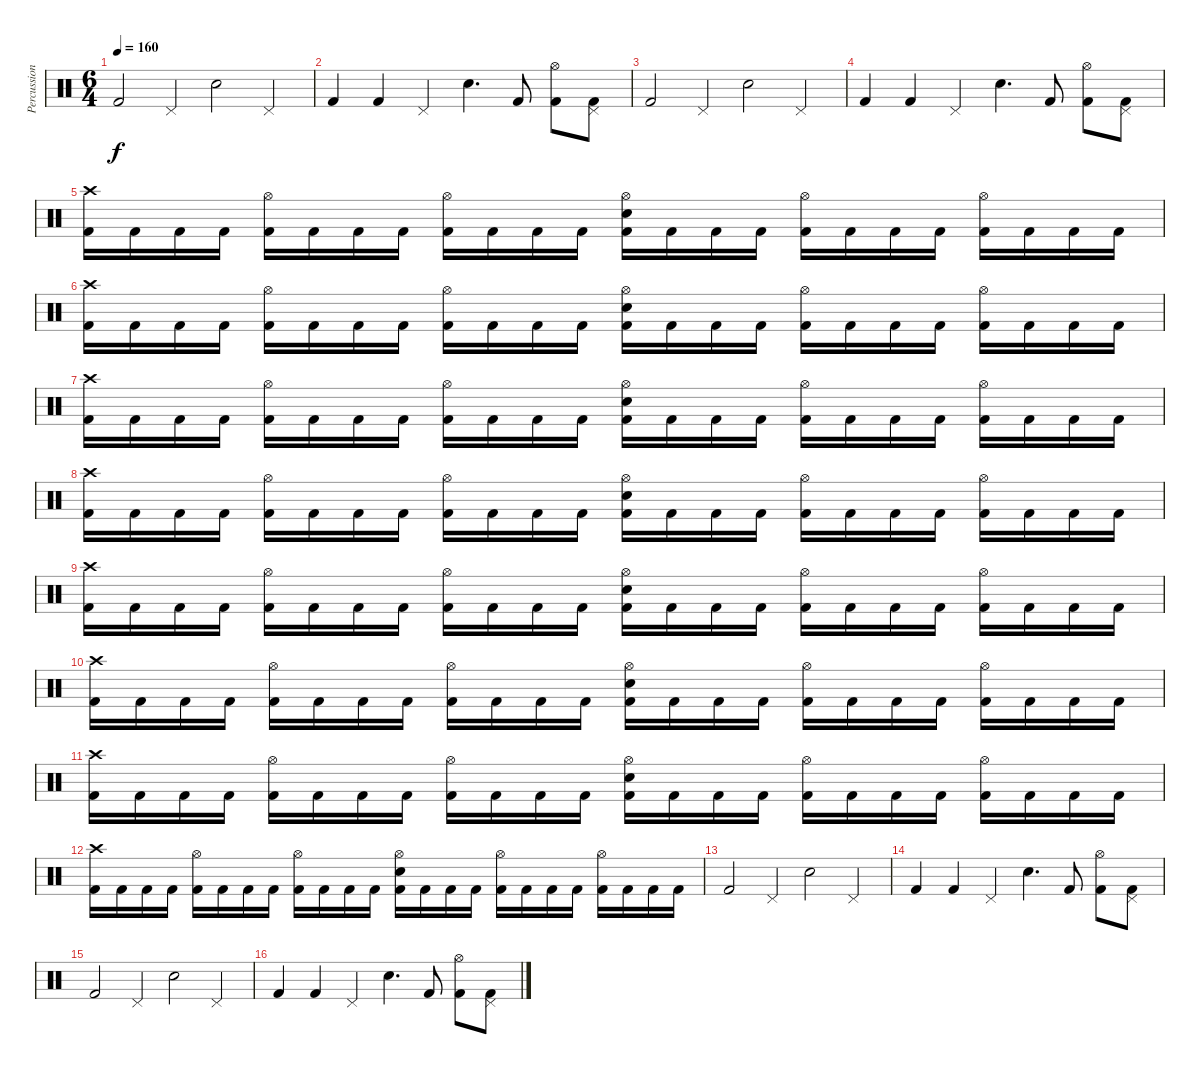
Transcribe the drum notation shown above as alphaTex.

\track ("Percussion" "Percussion") {instrument percussion}
\staff {score}
\articulation defaults
\ts (6 4)
\tempo 160
\clef neutral
\ks c "Kick (hit) 2".2{dy f} "Pedal Hi-Hat (hit)".4 "Electric Snare (hit)".2 "Pedal Hi-Hat (hit)".4
|
"Kick (hit) 2".4 "Kick (hit) 2".4 "Pedal Hi-Hat (hit)".4 "Electric Snare (hit)".4{d} "Kick (hit) 2".8 ("Hi-Hat (open)" "Kick (hit) 2").8 ("Pedal Hi-Hat (hit)" "Kick (hit) 2").8 |
"Kick (hit) 2".2 "Pedal Hi-Hat (hit)".4 "Electric Snare (hit)".2 "Pedal Hi-Hat (hit)".4 |
"Kick (hit) 2".4 "Kick (hit) 2".4 "Pedal Hi-Hat (hit)".4 "Electric Snare (hit)".4{d} "Kick (hit) 2".8 ("Hi-Hat (open)" "Kick (hit) 2").8 ("Pedal Hi-Hat (hit)" "Kick (hit) 2").8 |
("Crash high (hit)" "Kick (hit) 2").16 "Kick (hit) 2".16 "Kick (hit) 2".16 "Kick (hit) 2".16 ("Hi-Hat (open)" "Kick (hit) 2").16 "Kick (hit) 2".16 "Kick (hit) 2".16 "Kick (hit) 2".16 ("Hi-Hat (open)" "Kick (hit) 2").16 "Kick (hit) 2".16 "Kick (hit) 2".16 "Kick (hit) 2".16 ("Hi-Hat (open)" "Electric Snare (hit)" "Kick (hit) 2").16 "Kick (hit) 2".16 "Kick (hit) 2".16 "Kick (hit) 2".16 ("Hi-Hat (open)" "Kick (hit) 2").16 "Kick (hit) 2".16 "Kick (hit) 2".16 "Kick (hit) 2".16 ("Hi-Hat (open)" "Kick (hit) 2").16 "Kick (hit) 2".16 "Kick (hit) 2".16 "Kick (hit) 2".16 |
("Crash high (hit)" "Kick (hit) 2").16 "Kick (hit) 2".16 "Kick (hit) 2".16 "Kick (hit) 2".16 ("Hi-Hat (open)" "Kick (hit) 2").16 "Kick (hit) 2".16 "Kick (hit) 2".16 "Kick (hit) 2".16 ("Hi-Hat (open)" "Kick (hit) 2").16 "Kick (hit) 2".16 "Kick (hit) 2".16 "Kick (hit) 2".16 ("Hi-Hat (open)" "Electric Snare (hit)" "Kick (hit) 2").16 "Kick (hit) 2".16 "Kick (hit) 2".16 "Kick (hit) 2".16 ("Hi-Hat (open)" "Kick (hit) 2").16 "Kick (hit) 2".16 "Kick (hit) 2".16 "Kick (hit) 2".16 ("Hi-Hat (open)" "Kick (hit) 2").16 "Kick (hit) 2".16 "Kick (hit) 2".16 "Kick (hit) 2".16 |
("Crash high (hit)" "Kick (hit) 2").16 "Kick (hit) 2".16 "Kick (hit) 2".16 "Kick (hit) 2".16 ("Hi-Hat (open)" "Kick (hit) 2").16 "Kick (hit) 2".16 "Kick (hit) 2".16 "Kick (hit) 2".16 ("Hi-Hat (open)" "Kick (hit) 2").16 "Kick (hit) 2".16 "Kick (hit) 2".16 "Kick (hit) 2".16 ("Hi-Hat (open)" "Electric Snare (hit)" "Kick (hit) 2").16 "Kick (hit) 2".16 "Kick (hit) 2".16 "Kick (hit) 2".16 ("Hi-Hat (open)" "Kick (hit) 2").16 "Kick (hit) 2".16 "Kick (hit) 2".16 "Kick (hit) 2".16 ("Hi-Hat (open)" "Kick (hit) 2").16 "Kick (hit) 2".16 "Kick (hit) 2".16 "Kick (hit) 2".16 |
("Crash high (hit)" "Kick (hit) 2").16 "Kick (hit) 2".16 "Kick (hit) 2".16 "Kick (hit) 2".16 ("Hi-Hat (open)" "Kick (hit) 2").16 "Kick (hit) 2".16 "Kick (hit) 2".16 "Kick (hit) 2".16 ("Hi-Hat (open)" "Kick (hit) 2").16 "Kick (hit) 2".16 "Kick (hit) 2".16 "Kick (hit) 2".16 ("Hi-Hat (open)" "Electric Snare (hit)" "Kick (hit) 2").16 "Kick (hit) 2".16 "Kick (hit) 2".16 "Kick (hit) 2".16 ("Hi-Hat (open)" "Kick (hit) 2").16 "Kick (hit) 2".16 "Kick (hit) 2".16 "Kick (hit) 2".16 ("Hi-Hat (open)" "Kick (hit) 2").16 "Kick (hit) 2".16 "Kick (hit) 2".16 "Kick (hit) 2".16 |
("Crash high (hit)" "Kick (hit) 2").16 "Kick (hit) 2".16 "Kick (hit) 2".16 "Kick (hit) 2".16 ("Hi-Hat (open)" "Kick (hit) 2").16 "Kick (hit) 2".16 "Kick (hit) 2".16 "Kick (hit) 2".16 ("Hi-Hat (open)" "Kick (hit) 2").16 "Kick (hit) 2".16 "Kick (hit) 2".16 "Kick (hit) 2".16 ("Hi-Hat (open)" "Electric Snare (hit)" "Kick (hit) 2").16 "Kick (hit) 2".16 "Kick (hit) 2".16 "Kick (hit) 2".16 ("Hi-Hat (open)" "Kick (hit) 2").16 "Kick (hit) 2".16 "Kick (hit) 2".16 "Kick (hit) 2".16 ("Hi-Hat (open)" "Kick (hit) 2").16 "Kick (hit) 2".16 "Kick (hit) 2".16 "Kick (hit) 2".16 |
("Crash high (hit)" "Kick (hit) 2").16 "Kick (hit) 2".16 "Kick (hit) 2".16 "Kick (hit) 2".16 ("Hi-Hat (open)" "Kick (hit) 2").16 "Kick (hit) 2".16 "Kick (hit) 2".16 "Kick (hit) 2".16 ("Hi-Hat (open)" "Kick (hit) 2").16 "Kick (hit) 2".16 "Kick (hit) 2".16 "Kick (hit) 2".16 ("Hi-Hat (open)" "Electric Snare (hit)" "Kick (hit) 2").16 "Kick (hit) 2".16 "Kick (hit) 2".16 "Kick (hit) 2".16 ("Hi-Hat (open)" "Kick (hit) 2").16 "Kick (hit) 2".16 "Kick (hit) 2".16 "Kick (hit) 2".16 ("Hi-Hat (open)" "Kick (hit) 2").16 "Kick (hit) 2".16 "Kick (hit) 2".16 "Kick (hit) 2".16 |
("Crash high (hit)" "Kick (hit) 2").16 "Kick (hit) 2".16 "Kick (hit) 2".16 "Kick (hit) 2".16 ("Hi-Hat (open)" "Kick (hit) 2").16 "Kick (hit) 2".16 "Kick (hit) 2".16 "Kick (hit) 2".16 ("Hi-Hat (open)" "Kick (hit) 2").16 "Kick (hit) 2".16 "Kick (hit) 2".16 "Kick (hit) 2".16 ("Hi-Hat (open)" "Electric Snare (hit)" "Kick (hit) 2").16 "Kick (hit) 2".16 "Kick (hit) 2".16 "Kick (hit) 2".16 ("Hi-Hat (open)" "Kick (hit) 2").16 "Kick (hit) 2".16 "Kick (hit) 2".16 "Kick (hit) 2".16 ("Hi-Hat (open)" "Kick (hit) 2").16 "Kick (hit) 2".16 "Kick (hit) 2".16 "Kick (hit) 2".16 |
("Crash high (hit)" "Kick (hit) 2").16 "Kick (hit) 2".16 "Kick (hit) 2".16 "Kick (hit) 2".16 ("Hi-Hat (open)" "Kick (hit) 2").16 "Kick (hit) 2".16 "Kick (hit) 2".16 "Kick (hit) 2".16 ("Hi-Hat (open)" "Kick (hit) 2").16 "Kick (hit) 2".16 "Kick (hit) 2".16 "Kick (hit) 2".16 ("Hi-Hat (open)" "Electric Snare (hit)" "Kick (hit) 2").16 "Kick (hit) 2".16 "Kick (hit) 2".16 "Kick (hit) 2".16 ("Hi-Hat (open)" "Kick (hit) 2").16 "Kick (hit) 2".16 "Kick (hit) 2".16 "Kick (hit) 2".16 ("Hi-Hat (open)" "Kick (hit) 2").16 "Kick (hit) 2".16 "Kick (hit) 2".16 "Kick (hit) 2".16 |
"Kick (hit) 2".2 "Pedal Hi-Hat (hit)".4 "Electric Snare (hit)".2 "Pedal Hi-Hat (hit)".4 |
"Kick (hit) 2".4 "Kick (hit) 2".4 "Pedal Hi-Hat (hit)".4 "Electric Snare (hit)".4{d} "Kick (hit) 2".8 ("Hi-Hat (open)" "Kick (hit) 2").8 ("Pedal Hi-Hat (hit)" "Kick (hit) 2").8 |
"Kick (hit) 2".2 "Pedal Hi-Hat (hit)".4 "Electric Snare (hit)".2 "Pedal Hi-Hat (hit)".4 |
"Kick (hit) 2".4 "Kick (hit) 2".4 "Pedal Hi-Hat (hit)".4 "Electric Snare (hit)".4{d} "Kick (hit) 2".8 ("Hi-Hat (open)" "Kick (hit) 2").8 ("Pedal Hi-Hat (hit)" "Kick (hit) 2").8
